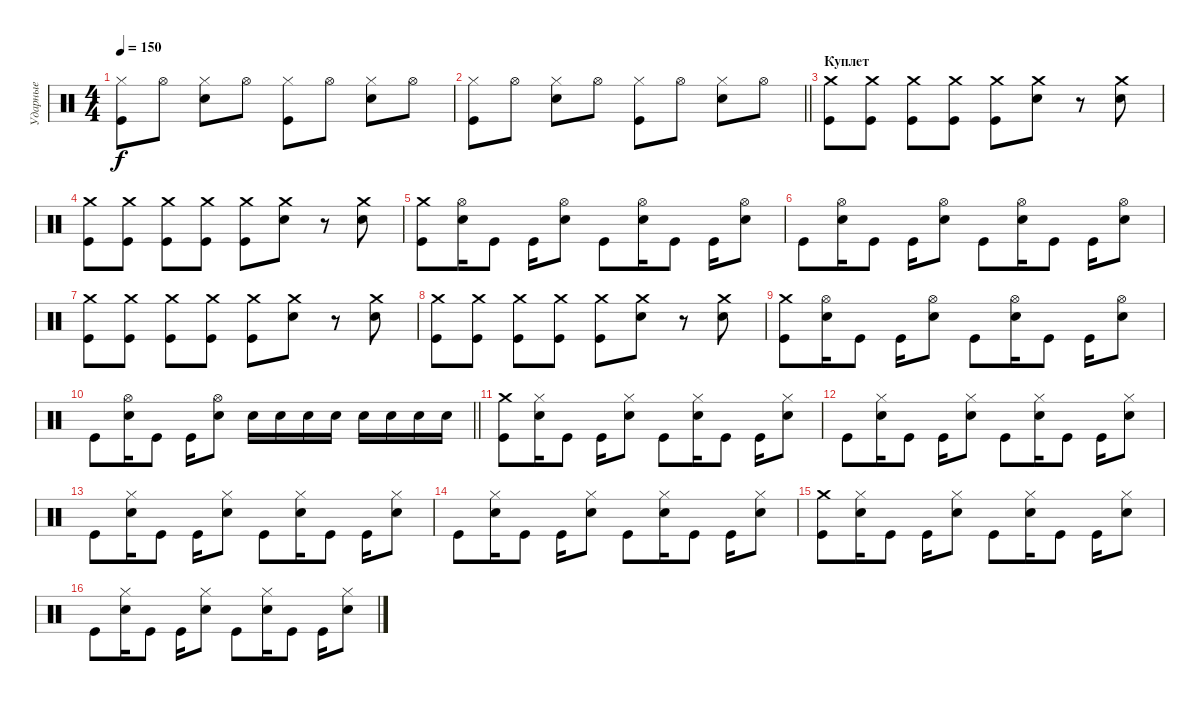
\track ("Ударные" "Ударные") {instrument percussion}
\staff {score}
\articulation defaults
\ts (4 4)
\tempo 150
\clef neutral
\ks c
("Hi-Hat (closed)" "Kick (hit)").8{dy f} "Hi-Hat (open)".8 ("Hi-Hat (closed)" "Electric Snare (hit)").8 "Hi-Hat (open)".8 ("Hi-Hat (closed)" "Kick (hit)").8 "Hi-Hat (open)".8 ("Hi-Hat (closed)" "Electric Snare (hit)").8 "Hi-Hat (open)".8 |
\barLineRight lightlight
("Hi-Hat (closed)" "Kick (hit)").8 "Hi-Hat (open)".8 ("Hi-Hat (closed)" "Electric Snare (hit)").8 "Hi-Hat (open)".8 ("Hi-Hat (closed)" "Kick (hit)").8 "Hi-Hat (open)".8 ("Hi-Hat (closed)" "Electric Snare (hit)").8 "Hi-Hat (open)".8 |
\section ("" "Куплет")
("Crash medium (hit)" "Kick (hit)").8 ("Crash medium (hit)" "Kick (hit)").8 ("Crash medium (hit)" "Kick (hit)").8 ("Crash medium (hit)" "Kick (hit)").8 ("Crash medium (hit)" "Kick (hit)").8 ("Crash medium (hit)" "Electric Snare (hit)").8 r.8 ("Crash medium (hit)" "Electric Snare (hit)").8 |
("Crash medium (hit)" "Kick (hit)").8 ("Crash medium (hit)" "Kick (hit)").8 ("Crash medium (hit)" "Kick (hit)").8 ("Crash medium (hit)" "Kick (hit)").8 ("Crash medium (hit)" "Kick (hit)").8 ("Crash medium (hit)" "Electric Snare (hit)").8 r.8 ("Crash medium (hit)" "Electric Snare (hit)").8 |
("Crash medium (hit)" "Kick (hit)").8 ("Hi-Hat (open)" "Electric Snare (hit)").16 "Kick (hit)".8 "Kick (hit)".16 ("Hi-Hat (open)" "Electric Snare (hit)").8 "Kick (hit)".8 ("Hi-Hat (open)" "Electric Snare (hit)").16 "Kick (hit)".8 "Kick (hit)".16 ("Hi-Hat (open)" "Electric Snare (hit)").8 |
"Kick (hit)".8 ("Hi-Hat (open)" "Electric Snare (hit)").16 "Kick (hit)".8 "Kick (hit)".16 ("Hi-Hat (open)" "Electric Snare (hit)").8 "Kick (hit)".8 ("Hi-Hat (open)" "Electric Snare (hit)").16 "Kick (hit)".8 "Kick (hit)".16 ("Hi-Hat (open)" "Electric Snare (hit)").8 |
("Crash medium (hit)" "Kick (hit)").8 ("Crash medium (hit)" "Kick (hit)").8 ("Crash medium (hit)" "Kick (hit)").8 ("Crash medium (hit)" "Kick (hit)").8 ("Crash medium (hit)" "Kick (hit)").8 ("Crash medium (hit)" "Electric Snare (hit)").8 r.8 ("Crash medium (hit)" "Electric Snare (hit)").8 |
("Crash medium (hit)" "Kick (hit)").8 ("Crash medium (hit)" "Kick (hit)").8 ("Crash medium (hit)" "Kick (hit)").8 ("Crash medium (hit)" "Kick (hit)").8 ("Crash medium (hit)" "Kick (hit)").8 ("Crash medium (hit)" "Electric Snare (hit)").8 r.8 ("Crash medium (hit)" "Electric Snare (hit)").8 |
("Crash medium (hit)" "Kick (hit)").8 ("Hi-Hat (open)" "Electric Snare (hit)").16 "Kick (hit)".8 "Kick (hit)".16 ("Hi-Hat (open)" "Electric Snare (hit)").8 "Kick (hit)".8 ("Hi-Hat (open)" "Electric Snare (hit)").16 "Kick (hit)".8 "Kick (hit)".16 ("Hi-Hat (open)" "Electric Snare (hit)").8 |
\barLineRight lightlight "Kick (hit)".8
("Hi-Hat (open)" "Electric Snare (hit)").16 "Kick (hit)".8 "Kick (hit)".16 ("Hi-Hat (open)" "Electric Snare (hit)").8 "Electric Snare (hit)".16 "Electric Snare (hit)".16 "Electric Snare (hit)".16 "Electric Snare (hit)".16 "Electric Snare (hit)".16 "Electric Snare (hit)".16 "Electric Snare (hit)".16 "Electric Snare (hit)".16 |
\section ("" " ")
("Crash medium (hit)" "Kick (hit)").8 ("Hi-Hat (closed)" "Electric Snare (hit)").16 "Kick (hit)".8 "Kick (hit)".16 ("Hi-Hat (closed)" "Electric Snare (hit)").8 "Kick (hit)".8 ("Hi-Hat (closed)" "Electric Snare (hit)").16 "Kick (hit)".8 "Kick (hit)".16 ("Hi-Hat (closed)" "Electric Snare (hit)").8 |
"Kick (hit)".8 ("Hi-Hat (closed)" "Electric Snare (hit)").16 "Kick (hit)".8 "Kick (hit)".16 ("Hi-Hat (closed)" "Electric Snare (hit)").8 "Kick (hit)".8 ("Hi-Hat (closed)" "Electric Snare (hit)").16 "Kick (hit)".8 "Kick (hit)".16 ("Hi-Hat (closed)" "Electric Snare (hit)").8 |
"Kick (hit)".8 ("Hi-Hat (closed)" "Electric Snare (hit)").16 "Kick (hit)".8 "Kick (hit)".16 ("Hi-Hat (closed)" "Electric Snare (hit)").8 "Kick (hit)".8 ("Hi-Hat (closed)" "Electric Snare (hit)").16 "Kick (hit)".8 "Kick (hit)".16 ("Hi-Hat (closed)" "Electric Snare (hit)").8 |
"Kick (hit)".8 ("Hi-Hat (closed)" "Electric Snare (hit)").16 "Kick (hit)".8 "Kick (hit)".16 ("Hi-Hat (closed)" "Electric Snare (hit)").8 "Kick (hit)".8 ("Hi-Hat (closed)" "Electric Snare (hit)").16 "Kick (hit)".8 "Kick (hit)".16 ("Hi-Hat (closed)" "Electric Snare (hit)").8 |
("Crash medium (hit)" "Kick (hit)").8 ("Hi-Hat (closed)" "Electric Snare (hit)").16 "Kick (hit)".8 "Kick (hit)".16 ("Hi-Hat (closed)" "Electric Snare (hit)").8 "Kick (hit)".8 ("Hi-Hat (closed)" "Electric Snare (hit)").16 "Kick (hit)".8 "Kick (hit)".16 ("Hi-Hat (closed)" "Electric Snare (hit)").8 |
"Kick (hit)".8 ("Hi-Hat (closed)" "Electric Snare (hit)").16 "Kick (hit)".8 "Kick (hit)".16 ("Hi-Hat (closed)" "Electric Snare (hit)").8 "Kick (hit)".8 ("Hi-Hat (closed)" "Electric Snare (hit)").16 "Kick (hit)".8 "Kick (hit)".16 ("Hi-Hat (closed)" "Electric Snare (hit)").8
